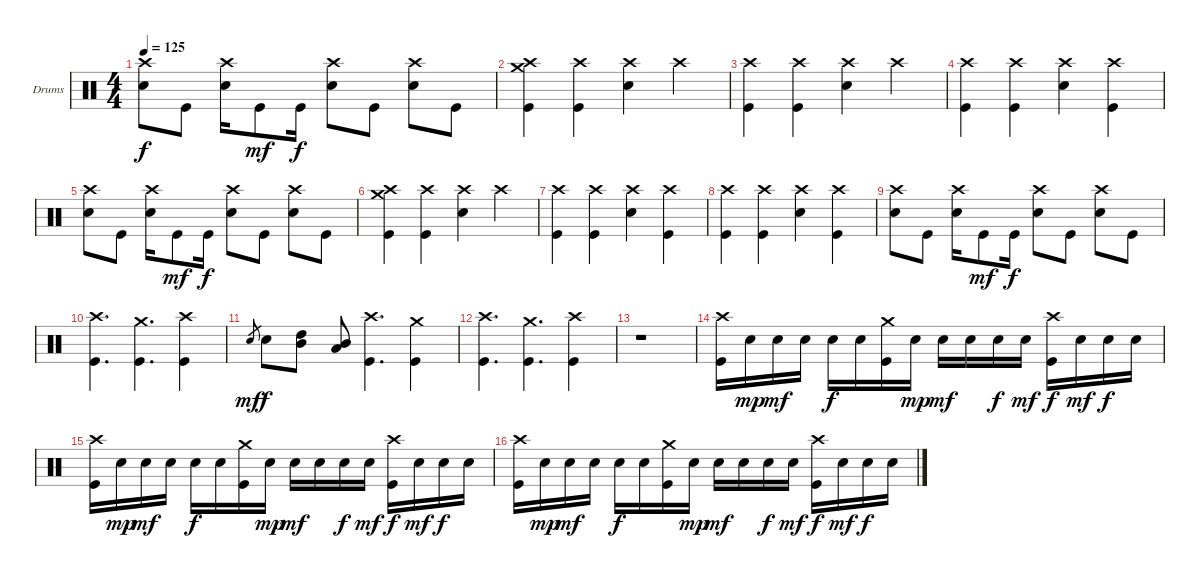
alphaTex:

\bracketExtendMode groupsimilarinstruments
\firstSystemTrackNameOrientation horizontal
\otherSystemsTrackNameOrientation horizontal
\track ("Drumkit" "Drums") {instrument percussion}
\staff {score}
\articulation defaults
\ts (4 4)
\tempo 125
\clef neutral
\ks c
("Crash high (hit)" "Snare (hit) 2").8{dy f} "Kick (hit)".8 ("Crash high (hit)" "Snare (hit) 2").16 "Kick (hit)".8{dy mf} "Kick (hit)".16{dy f} ("Crash high (hit)" "Snare (hit) 2").8 "Kick (hit)".8 ("Crash high (hit)" "Snare (hit) 2").8 "Kick (hit)".8 |
("Crash high (hit)" "Crash medium (hit)" "Kick (hit)").4 ("Crash high (hit)" "Kick (hit)").4 ("Crash high (hit)" "Snare (hit) 2").4 "Crash high (hit)".4 |
("Crash high (hit)" "Kick (hit)").4 ("Crash high (hit)" "Kick (hit)").4 ("Crash high (hit)" "Snare (hit) 2").4 "Crash high (hit)".4 |
("Crash high (hit)" "Kick (hit)").4 ("Crash high (hit)" "Kick (hit)").4 ("Crash high (hit)" "Snare (hit) 2").4 ("Crash high (hit)" "Kick (hit)").4 |
("Crash high (hit)" "Snare (hit) 2").8 "Kick (hit)".8 ("Crash high (hit)" "Snare (hit) 2").16 "Kick (hit)".8{dy mf} "Kick (hit)".16{dy f} ("Crash high (hit)" "Snare (hit) 2").8 "Kick (hit)".8 ("Crash high (hit)" "Snare (hit) 2").8 "Kick (hit)".8 |
("Crash high (hit)" "Crash medium (hit)" "Kick (hit)").4 ("Crash high (hit)" "Kick (hit)").4 ("Crash high (hit)" "Snare (hit) 2").4 "Crash high (hit)".4 |
("Crash high (hit)" "Kick (hit)").4 ("Crash high (hit)" "Kick (hit)").4 ("Crash high (hit)" "Snare (hit) 2").4 ("Crash high (hit)" "Kick (hit)").4 |
("Crash high (hit)" "Kick (hit)").4 ("Crash high (hit)" "Kick (hit)").4 ("Crash high (hit)" "Snare (hit) 2").4 ("Crash high (hit)" "Kick (hit)").4 |
("Crash high (hit)" "Snare (hit) 2").8 "Kick (hit)".8 ("Crash high (hit)" "Snare (hit) 2").16 "Kick (hit)".8{dy mf} "Kick (hit)".16{dy f} ("Crash high (hit)" "Snare (hit) 2").8 "Kick (hit)".8 ("Crash high (hit)" "Snare (hit) 2").8 "Kick (hit)".8 |
("Crash high (hit)" "Kick (hit)").4{d} ("Crash medium (hit)" "Kick (hit)").4{d} ("Crash high (hit)" "Kick (hit)").4 |
"Snare (hit) 2".8{gr dy mf} "Snare (hit) 2".8{dy f} ("High Tom (hit)" "Mid Tom (hit)").8 ("Mid Tom (hit)" "Low Tom (hit)").8 ("Crash high (hit)" "Kick (hit)").4{d} ("Crash medium (hit)" "Kick (hit)").4 |
("Crash high (hit)" "Kick (hit)").4{d} ("Crash medium (hit)" "Kick (hit)").4{d} ("Crash high (hit)" "Kick (hit)").4 |
r.1 |
("Crash high (hit)" "Kick (hit)").16 "Snare (hit) 2".16{dy mp} "Snare (hit) 2".16{dy mf} "Snare (hit) 2".16 "Snare (hit) 2".16{dy f} "Snare (hit) 2".16 ("Crash medium (hit)" "Kick (hit)").16 "Snare (hit) 2".16{dy mp} "Snare (hit) 2".16{dy mf} "Snare (hit) 2".16 "Snare (hit) 2".16{dy f} "Snare (hit) 2".16{dy mf} ("Crash high (hit)" "Kick (hit)").16{dy f} "Snare (hit) 2".16{dy mf} "Snare (hit) 2".16{dy f} "Snare (hit) 2".16 |
("Crash high (hit)" "Kick (hit)").16 "Snare (hit) 2".16{dy mp} "Snare (hit) 2".16{dy mf} "Snare (hit) 2".16 "Snare (hit) 2".16{dy f} "Snare (hit) 2".16 ("Crash medium (hit)" "Kick (hit)").16 "Snare (hit) 2".16{dy mp} "Snare (hit) 2".16{dy mf} "Snare (hit) 2".16 "Snare (hit) 2".16{dy f} "Snare (hit) 2".16{dy mf} ("Crash high (hit)" "Kick (hit)").16{dy f} "Snare (hit) 2".16{dy mf} "Snare (hit) 2".16{dy f} "Snare (hit) 2".16 |
("Crash high (hit)" "Kick (hit)").16 "Snare (hit) 2".16{dy mp} "Snare (hit) 2".16{dy mf} "Snare (hit) 2".16 "Snare (hit) 2".16{dy f} "Snare (hit) 2".16 ("Crash medium (hit)" "Kick (hit)").16 "Snare (hit) 2".16{dy mp} "Snare (hit) 2".16{dy mf} "Snare (hit) 2".16 "Snare (hit) 2".16{dy f} "Snare (hit) 2".16{dy mf} ("Crash high (hit)" "Kick (hit)").16{dy f} "Snare (hit) 2".16{dy mf} "Snare (hit) 2".16{dy f} "Snare (hit) 2".16
